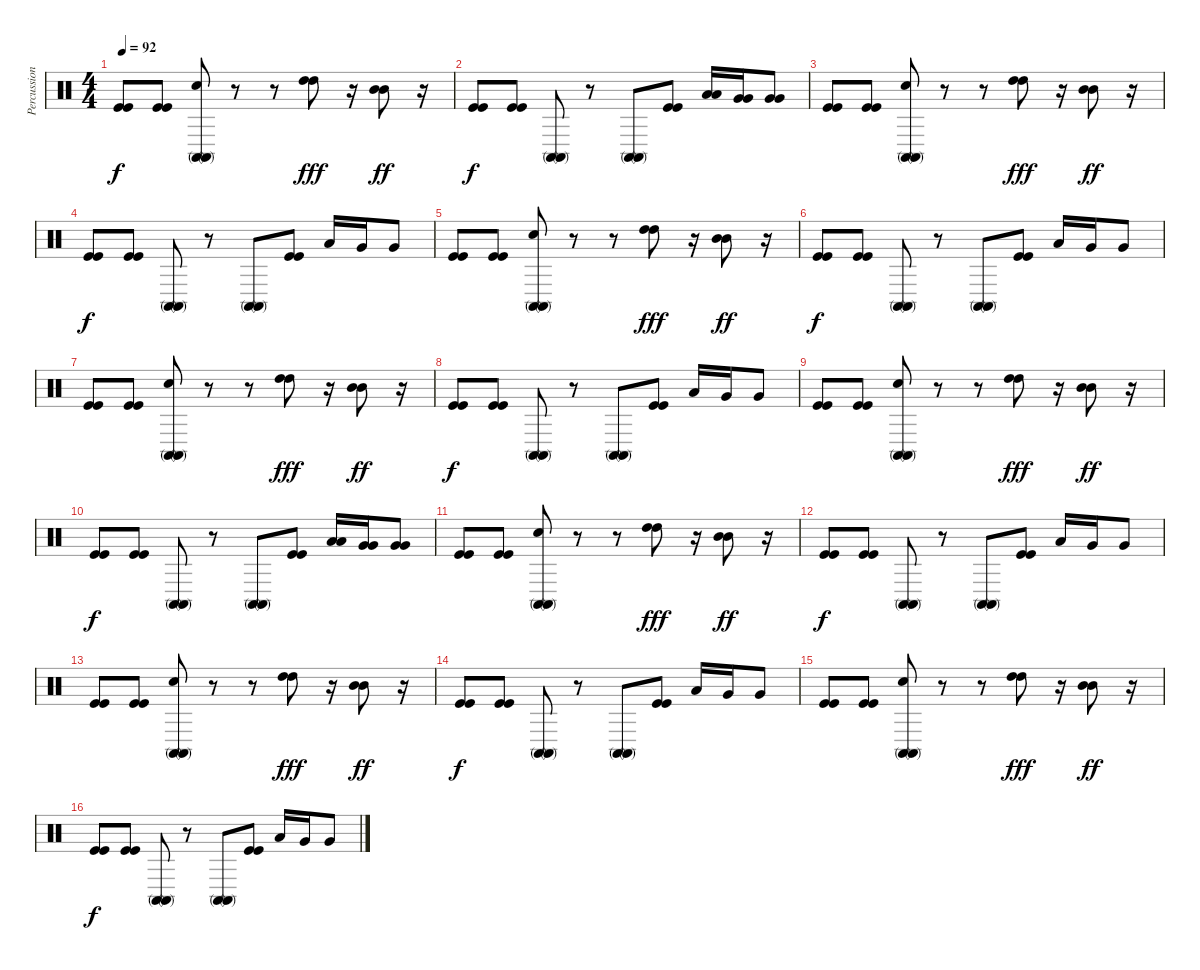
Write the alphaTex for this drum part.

\track ("Percussion" "Percussion") {instrument percussion}
\staff {score}
\articulation defaults
\ts (4 4)
\tempo 92
\clef neutral
\ks c
("Kick (hit)" "Kick (hit)").8{dy f} ("Kick (hit)" "Kick (hit)").8 ("Conga high (mute)" "Conga high (mute)" "Electric Snare (hit)").8 r.8 r.8 ("High Tom (hit)" "High Tom (hit)").8{dy fff} r.16 ("Mid Tom (hit)" "Mid Tom (hit)").8{dy ff} r.16 |
("Kick (hit)" "Kick (hit)").8{dy f} ("Kick (hit)" "Kick (hit)").8 ("Conga high (mute)" "Conga high (mute)").8 r.8 ("Conga high (mute)" "Conga high (mute)").8 ("Kick (hit)" "Kick (hit)").8 ("Low Tom (hit)" "Low Tom (hit)").16 ("Very Low Tom (hit)" "Very Low Tom (hit)").16 ("Very Low Tom (hit)" "Very Low Tom (hit)").8 |
("Kick (hit)" "Kick (hit)").8 ("Kick (hit)" "Kick (hit)").8 ("Conga high (mute)" "Conga high (mute)" "Electric Snare (hit)").8 r.8 r.8 ("High Tom (hit)" "High Tom (hit)").8{dy fff} r.16 ("Mid Tom (hit)" "Mid Tom (hit)").8{dy ff} r.16 |
("Kick (hit)" "Kick (hit)").8{dy f} ("Kick (hit)" "Kick (hit)").8 ("Conga high (mute)" "Conga high (mute)").8 r.8 ("Conga high (mute)" "Conga high (mute)").8 ("Kick (hit)" "Kick (hit)").8 "Low Tom (hit)".16 "Very Low Tom (hit)".16 "Very Low Tom (hit)".8 |
("Kick (hit)" "Kick (hit)").8 ("Kick (hit)" "Kick (hit)").8 ("Conga high (mute)" "Conga high (mute)" "Electric Snare (hit)").8 r.8 r.8 ("High Tom (hit)" "High Tom (hit)").8{dy fff} r.16 ("Mid Tom (hit)" "Mid Tom (hit)").8{dy ff} r.16 |
("Kick (hit)" "Kick (hit)").8{dy f} ("Kick (hit)" "Kick (hit)").8 ("Conga high (mute)" "Conga high (mute)").8 r.8 ("Conga high (mute)" "Conga high (mute)").8 ("Kick (hit)" "Kick (hit)").8 "Low Tom (hit)".16 "Very Low Tom (hit)".16 "Very Low Tom (hit)".8 |
("Kick (hit)" "Kick (hit)").8 ("Kick (hit)" "Kick (hit)").8 ("Conga high (mute)" "Conga high (mute)" "Electric Snare (hit)").8 r.8 r.8 ("High Tom (hit)" "High Tom (hit)").8{dy fff} r.16 ("Mid Tom (hit)" "Mid Tom (hit)").8{dy ff} r.16 |
("Kick (hit)" "Kick (hit)").8{dy f} ("Kick (hit)" "Kick (hit)").8 ("Conga high (mute)" "Conga high (mute)").8 r.8 ("Conga high (mute)" "Conga high (mute)").8 ("Kick (hit)" "Kick (hit)").8 "Low Tom (hit)".16 "Very Low Tom (hit)".16 "Very Low Tom (hit)".8 |
("Kick (hit)" "Kick (hit)").8 ("Kick (hit)" "Kick (hit)").8 ("Conga high (mute)" "Conga high (mute)" "Electric Snare (hit)").8 r.8 r.8 ("High Tom (hit)" "High Tom (hit)").8{dy fff} r.16 ("Mid Tom (hit)" "Mid Tom (hit)").8{dy ff} r.16 |
("Kick (hit)" "Kick (hit)").8{dy f} ("Kick (hit)" "Kick (hit)").8 ("Conga high (mute)" "Conga high (mute)").8 r.8 ("Conga high (mute)" "Conga high (mute)").8 ("Kick (hit)" "Kick (hit)").8 ("Low Tom (hit)" "Low Tom (hit)").16 ("Very Low Tom (hit)" "Very Low Tom (hit)").16 ("Very Low Tom (hit)" "Very Low Tom (hit)").8 |
("Kick (hit)" "Kick (hit)").8 ("Kick (hit)" "Kick (hit)").8 ("Conga high (mute)" "Conga high (mute)" "Electric Snare (hit)").8 r.8 r.8 ("High Tom (hit)" "High Tom (hit)").8{dy fff} r.16 ("Mid Tom (hit)" "Mid Tom (hit)").8{dy ff} r.16 |
("Kick (hit)" "Kick (hit)").8{dy f} ("Kick (hit)" "Kick (hit)").8 ("Conga high (mute)" "Conga high (mute)").8 r.8 ("Conga high (mute)" "Conga high (mute)").8 ("Kick (hit)" "Kick (hit)").8 "Low Tom (hit)".16 "Very Low Tom (hit)".16 "Very Low Tom (hit)".8 |
("Kick (hit)" "Kick (hit)").8 ("Kick (hit)" "Kick (hit)").8 ("Conga high (mute)" "Conga high (mute)" "Electric Snare (hit)").8 r.8 r.8 ("High Tom (hit)" "High Tom (hit)").8{dy fff} r.16 ("Mid Tom (hit)" "Mid Tom (hit)").8{dy ff} r.16 |
("Kick (hit)" "Kick (hit)").8{dy f} ("Kick (hit)" "Kick (hit)").8 ("Conga high (mute)" "Conga high (mute)").8 r.8 ("Conga high (mute)" "Conga high (mute)").8 ("Kick (hit)" "Kick (hit)").8 "Low Tom (hit)".16 "Very Low Tom (hit)".16 "Very Low Tom (hit)".8 |
("Kick (hit)" "Kick (hit)").8 ("Kick (hit)" "Kick (hit)").8 ("Conga high (mute)" "Conga high (mute)" "Electric Snare (hit)").8 r.8 r.8 ("High Tom (hit)" "High Tom (hit)").8{dy fff} r.16 ("Mid Tom (hit)" "Mid Tom (hit)").8{dy ff} r.16 |
("Kick (hit)" "Kick (hit)").8{dy f} ("Kick (hit)" "Kick (hit)").8 ("Conga high (mute)" "Conga high (mute)").8 r.8 ("Conga high (mute)" "Conga high (mute)").8 ("Kick (hit)" "Kick (hit)").8 "Low Tom (hit)".16 "Very Low Tom (hit)".16 "Very Low Tom (hit)".8
